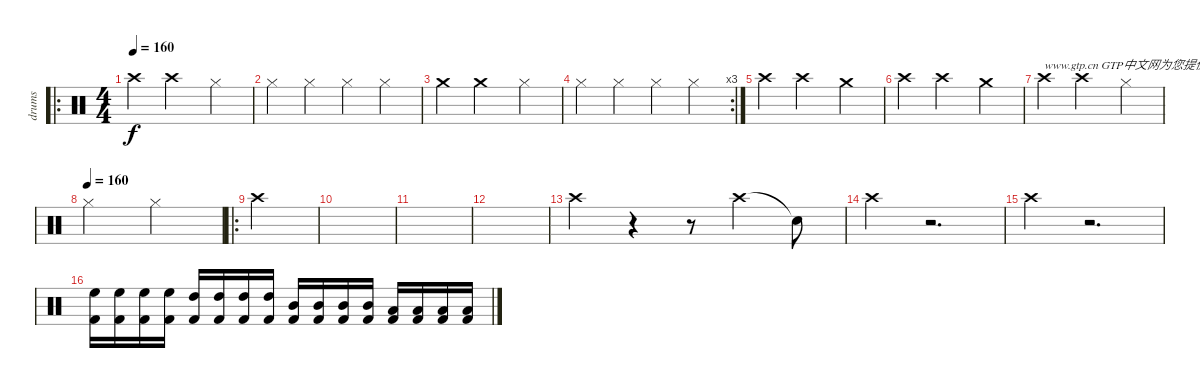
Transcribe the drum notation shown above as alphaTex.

\track ("drums" "drums") {instrument percussion}
\staff {score}
\articulation defaults
\ro
\ts (4 4)
\tempo 160
\clef neutral
\ks c "Crash high (hit)".4{dy f} "Crash high (hit)".2 "Hi-Hat (closed)".4
|
"Hi-Hat (closed)".4 "Hi-Hat (closed)".4 "Hi-Hat (closed)".4 "Hi-Hat (closed)".4 |
"Crash medium (hit)".4 "Crash medium (hit)".2 "Hi-Hat (closed)".4 |
\rc 3 "Hi-Hat (closed)".4 "Hi-Hat (closed)".4 "Hi-Hat (closed)".4 "Hi-Hat (closed)".4
|
"Crash high (hit)".4 "Crash high (hit)".2 "Crash medium (hit)".4 |
"Crash high (hit)".4 "Crash high (hit)".2 "Crash medium (hit)".4 |
"Crash high (hit)".4{txt "www.gtp.cn GTP中文网为您提供优秀的谱子"} "Crash high (hit)".2 "Hi-Hat (closed)".4 |
\tempo (160)
"Hi-Hat (closed)".2 "Hi-Hat (closed)".2 |
\ro "Crash high (hit)".4
|
|
|
|
"Crash high (hit)".4 r.4 r.8 "Crash high (hit)".4 "Snare (hit)"{t}.8 |
"Crash high (hit)".4 r.2{d} |
"Crash high (hit)".4 r.2{d} |
("High Floor Tom (hit)" "Kick (hit) 2").16 ("High Floor Tom (hit)" "Kick (hit) 2").16 ("High Floor Tom (hit)" "Kick (hit) 2").16 ("High Floor Tom (hit)" "Kick (hit) 2").16 ("High Tom (hit)" "Kick (hit) 2").16 ("High Tom (hit)" "Kick (hit) 2").16 ("High Tom (hit)" "Kick (hit) 2").16 ("High Tom (hit)" "Kick (hit) 2").16 ("Mid Tom (hit)" "Kick (hit) 2").16 ("Mid Tom (hit)" "Kick (hit) 2").16 ("Mid Tom (hit)" "Kick (hit) 2").16 ("Mid Tom (hit)" "Kick (hit) 2").16 ("Low Tom (hit)" "Kick (hit) 2").16 ("Low Tom (hit)" "Kick (hit) 2").16 ("Low Tom (hit)" "Kick (hit) 2").16 ("Low Tom (hit)" "Kick (hit) 2").16
